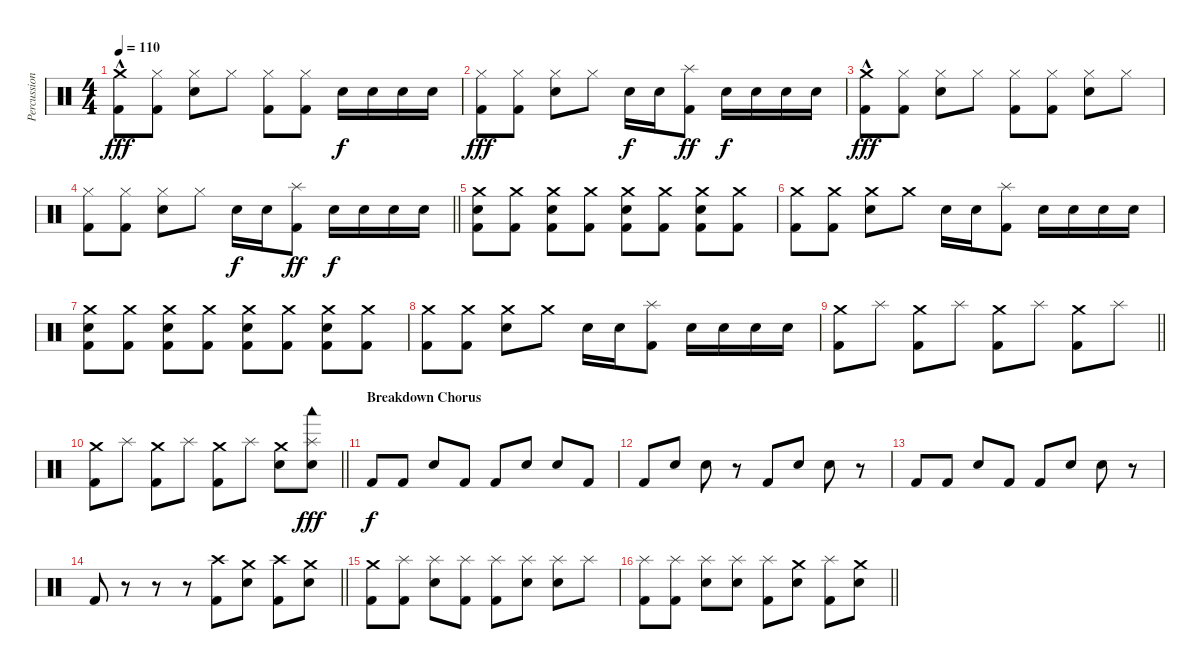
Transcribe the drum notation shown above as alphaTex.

\track ("Percussion" "Percussion") {instrument percussion}
\staff {score}
\articulation defaults
\ts (4 4)
\tempo 110
\clef neutral
\ks c
("Crash medium (hit)"{hac} "Kick (hit) 2").8{dy fff} ("Hi-Hat (closed)" "Kick (hit) 2").8 ("Hi-Hat (closed)" "Snare (hit) 2").8 "Hi-Hat (closed)".8 ("Hi-Hat (closed)" "Kick (hit) 2").8 ("Hi-Hat (closed)" "Kick (hit) 2").8 "Snare (hit) 2".16{dy f} "Snare (hit) 2".16 "Snare (hit) 2".16 "Snare (hit) 2".16 |
("Hi-Hat (closed)" "Kick (hit) 2").8{dy fff} ("Hi-Hat (closed)" "Kick (hit) 2").8 ("Hi-Hat (closed)" "Snare (hit) 2").8 "Hi-Hat (closed)".8 "Snare (hit) 2".16{dy f} "Snare (hit) 2".16 ("Splash (hit)" "Kick (hit) 2").8{dy ff} "Snare (hit) 2".16{dy f} "Snare (hit) 2".16 "Snare (hit) 2".16 "Snare (hit) 2".16 |
("Crash medium (hit)"{hac} "Kick (hit) 2").8{dy fff} ("Hi-Hat (closed)" "Kick (hit) 2").8 ("Hi-Hat (closed)" "Snare (hit) 2").8 "Hi-Hat (closed)".8 ("Hi-Hat (closed)" "Kick (hit) 2").8 ("Hi-Hat (closed)" "Kick (hit) 2").8 ("Hi-Hat (closed)" "Snare (hit) 2").8 "Hi-Hat (closed)".8 |
\barLineRight lightlight
("Hi-Hat (closed)" "Kick (hit) 2").8 ("Hi-Hat (closed)" "Kick (hit) 2").8 ("Hi-Hat (closed)" "Snare (hit) 2").8 "Hi-Hat (closed)".8 "Snare (hit) 2".16{dy f} "Snare (hit) 2".16 ("Splash (hit)" "Kick (hit) 2").8{dy ff} "Snare (hit) 2".16{dy f} "Snare (hit) 2".16 "Snare (hit) 2".16 "Snare (hit) 2".16 |
("Crash medium (hit)" "Snare (hit) 2" "Kick (hit) 2").8 ("Crash medium (hit)" "Kick (hit) 2").8 ("Crash medium (hit)" "Snare (hit) 2" "Kick (hit) 2").8 ("Crash medium (hit)" "Kick (hit) 2").8 ("Crash medium (hit)" "Snare (hit) 2" "Kick (hit) 2").8 ("Crash medium (hit)" "Kick (hit) 2").8 ("Crash medium (hit)" "Snare (hit) 2" "Kick (hit) 2").8 ("Crash medium (hit)" "Kick (hit) 2").8 |
("Crash medium (hit)" "Kick (hit) 2").8 ("Crash medium (hit)" "Kick (hit) 2").8 ("Crash medium (hit)" "Snare (hit) 2").8 "Crash medium (hit)".8 "Snare (hit) 2".16 "Snare (hit) 2".16 ("Splash (hit)" "Kick (hit) 2").8 "Snare (hit) 2".16 "Snare (hit) 2".16 "Snare (hit) 2".16 "Snare (hit) 2".16 |
("Crash medium (hit)" "Snare (hit) 2" "Kick (hit) 2").8 ("Crash medium (hit)" "Kick (hit) 2").8 ("Crash medium (hit)" "Snare (hit) 2" "Kick (hit) 2").8 ("Crash medium (hit)" "Kick (hit) 2").8 ("Crash medium (hit)" "Snare (hit) 2" "Kick (hit) 2").8 ("Crash medium (hit)" "Kick (hit) 2").8 ("Crash medium (hit)" "Snare (hit) 2" "Kick (hit) 2").8 ("Crash medium (hit)" "Kick (hit) 2").8 |
("Crash medium (hit)" "Kick (hit) 2").8 ("Crash medium (hit)" "Kick (hit) 2").8 ("Crash medium (hit)" "Snare (hit) 2").8 "Crash medium (hit)".8 "Snare (hit) 2".16 "Snare (hit) 2".16 ("Splash (hit)" "Kick (hit) 2").8 "Snare (hit) 2".16 "Snare (hit) 2".16 "Snare (hit) 2".16 "Snare (hit) 2".16 |
\barLineRight lightlight
("Crash medium (hit)" "Kick (hit) 2").8 "Splash (hit)".8 ("Crash medium (hit)" "Kick (hit) 2").8 "Splash (hit)".8 ("Crash medium (hit)" "Kick (hit) 2").8 "Splash (hit)".8 ("Crash medium (hit)" "Kick (hit) 2").8 "Splash (hit)".8 |
\barLineRight lightlight
("Crash medium (hit)" "Kick (hit) 2").8 "Splash (hit)".8 ("Crash medium (hit)" "Kick (hit) 2").8 "Splash (hit)".8 ("Crash medium (hit)" "Kick (hit) 2").8 "Splash (hit)".8 ("Crash medium (hit)" "Snare (hit) 2").8 ("Splash (hit)" "Snare (hit) 2" "Woodblock low (hit)").8{dy fff} |
\section ("" "Breakdown Chorus")
"Kick (hit) 2".8{dy f} "Kick (hit) 2".8 "Snare (hit) 2".8 "Kick (hit) 2".8 "Kick (hit) 2".8 "Snare (hit) 2".8 "Snare (hit) 2".8 "Kick (hit) 2".8 |
"Kick (hit) 2".8 "Snare (hit) 2".8 "Snare (hit) 2".8 r.8 "Kick (hit) 2".8 "Snare (hit) 2".8 "Snare (hit) 2".8 r.8 |
"Kick (hit) 2".8 "Kick (hit) 2".8 "Snare (hit) 2".8 "Kick (hit) 2".8 "Kick (hit) 2".8 "Snare (hit) 2".8 "Snare (hit) 2".8 r.8 |
\barLineRight lightlight "Kick (hit) 2".8
r.8 r.8 r.8 ("Crash high (hit)" "Kick (hit) 2").8 ("Crash medium (hit)" "Snare (hit) 2").8 ("Crash high (hit)" "Kick (hit) 2").8 ("Crash medium (hit)" "Snare (hit) 2").8 |
("Crash medium (hit)" "Kick (hit) 2").8 ("Splash (hit)" "Kick (hit) 2").8 ("Splash (hit)" "Snare (hit) 2").8 ("Splash (hit)" "Kick (hit) 2").8 ("Splash (hit)" "Kick (hit) 2").8 ("Splash (hit)" "Snare (hit) 2").8 ("Splash (hit)" "Snare (hit) 2").8 "Splash (hit)".8 |
\barLineRight lightlight
("Splash (hit)" "Kick (hit) 2").8 ("Splash (hit)" "Kick (hit) 2").8 ("Splash (hit)" "Snare (hit) 2").8 ("Splash (hit)" "Snare (hit) 2").8 ("Splash (hit)" "Kick (hit) 2").8 ("Crash medium (hit)" "Snare (hit) 2").8 ("Splash (hit)" "Kick (hit) 2").8 ("Crash medium (hit)" "Snare (hit) 2").8
